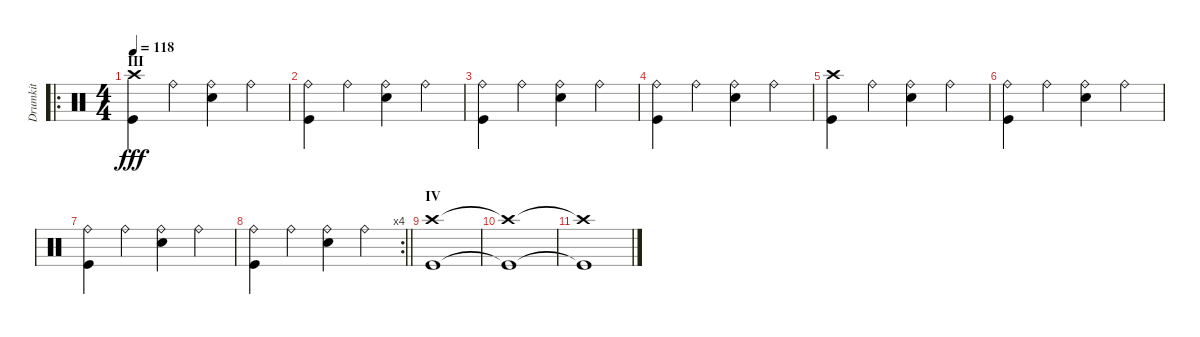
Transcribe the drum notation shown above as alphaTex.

\track ("Drumkit" "Drumkit") {instrument percussion}
\staff {score}
\articulation defaults
\ro
\ts (4 4)
\section ("" "III")
\tempo 118
\clef neutral
\ks c
("Kick (hit)" "Crash high (hit)").4{dy fff} "Ride (bell)".4 ("Snare (hit) 2" "Ride (bell)").4 "Ride (bell)".4 |
("Kick (hit)" "Ride (bell)").4 "Ride (bell)".4 ("Snare (hit) 2" "Ride (bell)").4 "Ride (bell)".4 |
("Kick (hit)" "Ride (bell)").4 "Ride (bell)".4 ("Snare (hit) 2" "Ride (bell)").4 "Ride (bell)".4 |
("Kick (hit)" "Ride (bell)").4 "Ride (bell)".4 ("Snare (hit) 2" "Ride (bell)").4 "Ride (bell)".4 |
("Kick (hit)" "Crash high (hit)").4 "Ride (bell)".4 ("Snare (hit) 2" "Ride (bell)").4 "Ride (bell)".4 |
("Kick (hit)" "Ride (bell)").4 "Ride (bell)".4 ("Snare (hit) 2" "Ride (bell)").4 "Ride (bell)".4 |
("Kick (hit)" "Ride (bell)").4 "Ride (bell)".4 ("Snare (hit) 2" "Ride (bell)").4 "Ride (bell)".4 |
\rc 4
\barLineRight lightlight
("Kick (hit)" "Ride (bell)").4 "Ride (bell)".4 ("Snare (hit) 2" "Ride (bell)").4 "Ride (bell)".4 |
\section ("" "IV")
("Kick (hit)" "Crash high (hit)").1 |
("Kick (hit)"{t} "Crash high (hit)"{t}).1 |
("Kick (hit)"{t} "Crash high (hit)"{t}).1
